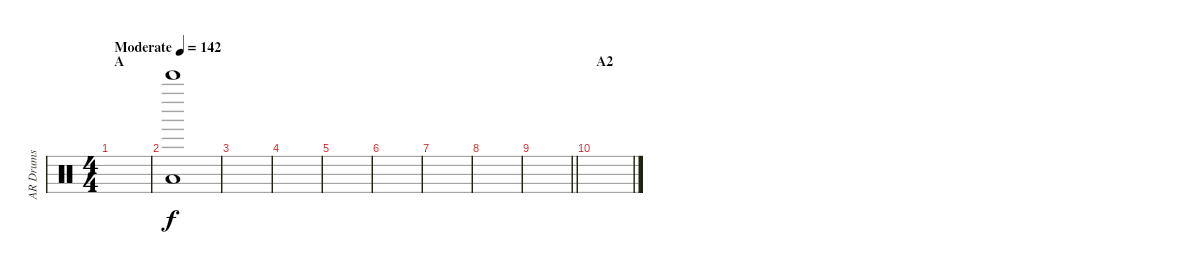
\track ("AR Drums" "AR Drums") {instrument percussion}
\staff {score}
\articulation defaults
\ts (4 4)
\section ("" "A")
\tempo (142 "Moderate")
\clef neutral
\ks c
|
("Low Tom (hit)" "Bell Tree (hit)").1 |
|
|
|
|
|
|
\barLineRight lightlight
|
\section ("" "A2")
